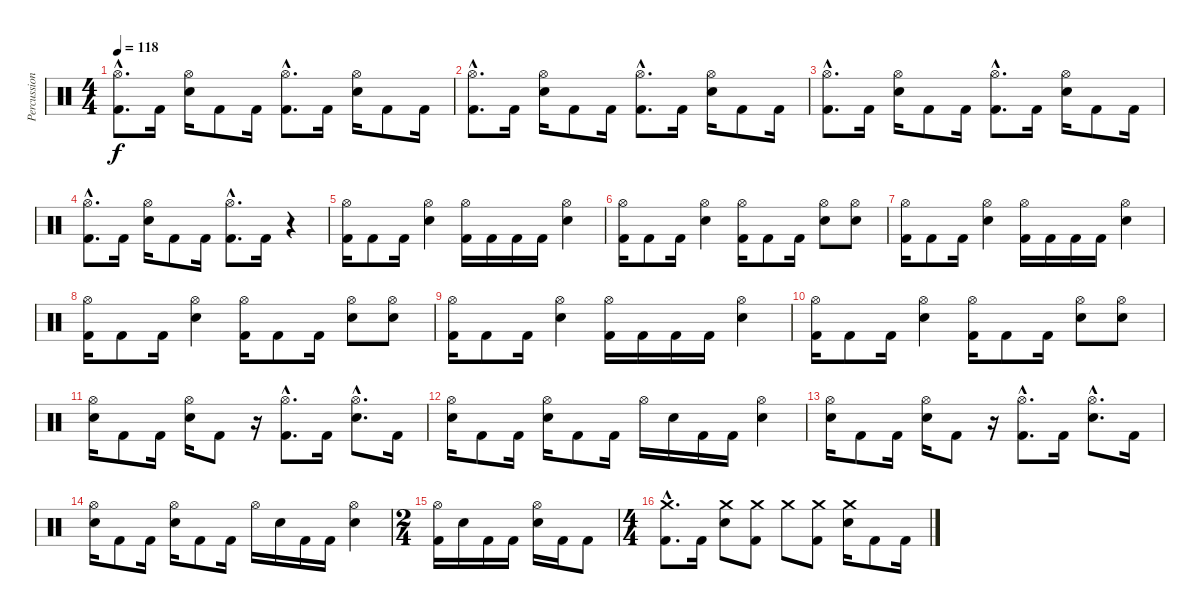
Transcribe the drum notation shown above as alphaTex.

\track ("Percussions" "Percussion") {instrument percussion}
\staff {score}
\articulation defaults
\ts (4 4)
\tempo 118
\clef neutral
\ks c
("Hi-Hat (open)"{hac} "Kick (hit) 2"{hac}).8{d dy f} "Kick (hit) 2".16 ("Hi-Hat (open)" "Electric Snare (hit)").16 "Kick (hit) 2".8 "Kick (hit) 2".16 ("Hi-Hat (open)"{hac} "Kick (hit) 2"{hac}).8{d} "Kick (hit) 2".16 ("Hi-Hat (open)" "Electric Snare (hit)").16 "Kick (hit) 2".8 "Kick (hit) 2".16 |
("Hi-Hat (open)"{hac} "Kick (hit) 2"{hac}).8{d} "Kick (hit) 2".16 ("Hi-Hat (open)" "Electric Snare (hit)").16 "Kick (hit) 2".8 "Kick (hit) 2".16 ("Hi-Hat (open)"{hac} "Kick (hit) 2"{hac}).8{d} "Kick (hit) 2".16 ("Hi-Hat (open)" "Electric Snare (hit)").16 "Kick (hit) 2".8 "Kick (hit) 2".16 |
("Hi-Hat (open)"{hac} "Kick (hit) 2"{hac}).8{d} "Kick (hit) 2".16 ("Hi-Hat (open)" "Electric Snare (hit)").16 "Kick (hit) 2".8 "Kick (hit) 2".16 ("Hi-Hat (open)"{hac} "Kick (hit) 2"{hac}).8{d} "Kick (hit) 2".16 ("Hi-Hat (open)" "Electric Snare (hit)").16 "Kick (hit) 2".8 "Kick (hit) 2".16 |
("Hi-Hat (open)"{hac} "Kick (hit) 2"{hac}).8{d} "Kick (hit) 2".16 ("Hi-Hat (open)" "Electric Snare (hit)").16 "Kick (hit) 2".8 "Kick (hit) 2".16 ("Hi-Hat (open)"{hac} "Kick (hit) 2"{hac}).8{d} "Kick (hit) 2".16 r.4 |
("Hi-Hat (open)" "Kick (hit) 2").16 "Kick (hit) 2".8 "Kick (hit) 2".16 ("Hi-Hat (open)" "Electric Snare (hit)").4 ("Hi-Hat (open)" "Kick (hit) 2").16 "Kick (hit) 2".16 "Kick (hit) 2".16 "Kick (hit) 2".16 ("Hi-Hat (open)" "Electric Snare (hit)").4 |
("Hi-Hat (open)" "Kick (hit) 2").16 "Kick (hit) 2".8 "Kick (hit) 2".16 ("Hi-Hat (open)" "Electric Snare (hit)").4 ("Hi-Hat (open)" "Kick (hit) 2").16 "Kick (hit) 2".8 "Kick (hit) 2".16 ("Hi-Hat (open)" "Electric Snare (hit)").8 ("Hi-Hat (open)" "Electric Snare (hit)").8 |
("Hi-Hat (open)" "Kick (hit) 2").16 "Kick (hit) 2".8 "Kick (hit) 2".16 ("Hi-Hat (open)" "Electric Snare (hit)").4 ("Hi-Hat (open)" "Kick (hit) 2").16 "Kick (hit) 2".16 "Kick (hit) 2".16 "Kick (hit) 2".16 ("Hi-Hat (open)" "Electric Snare (hit)").4 |
("Hi-Hat (open)" "Kick (hit) 2").16 "Kick (hit) 2".8 "Kick (hit) 2".16 ("Hi-Hat (open)" "Electric Snare (hit)").4 ("Hi-Hat (open)" "Kick (hit) 2").16 "Kick (hit) 2".8 "Kick (hit) 2".16 ("Hi-Hat (open)" "Electric Snare (hit)").8 ("Hi-Hat (open)" "Electric Snare (hit)").8 |
("Hi-Hat (open)" "Kick (hit) 2").16 "Kick (hit) 2".8 "Kick (hit) 2".16 ("Hi-Hat (open)" "Electric Snare (hit)").4 ("Hi-Hat (open)" "Kick (hit) 2").16 "Kick (hit) 2".16 "Kick (hit) 2".16 "Kick (hit) 2".16 ("Hi-Hat (open)" "Electric Snare (hit)").4 |
("Hi-Hat (open)" "Kick (hit) 2").16 "Kick (hit) 2".8 "Kick (hit) 2".16 ("Hi-Hat (open)" "Electric Snare (hit)").4 ("Hi-Hat (open)" "Kick (hit) 2").16 "Kick (hit) 2".8 "Kick (hit) 2".16 ("Hi-Hat (open)" "Electric Snare (hit)").8 ("Hi-Hat (open)" "Electric Snare (hit)").8 |
("Hi-Hat (open)" "Electric Snare (hit)").16 "Kick (hit) 2".8 "Kick (hit) 2".16 ("Hi-Hat (open)" "Electric Snare (hit)").16 "Kick (hit) 2".8 r.16 ("Hi-Hat (open)"{hac} "Kick (hit) 2"{hac}).8{d} "Kick (hit) 2".16 ("Hi-Hat (open)"{hac} "Electric Snare (hit)"{hac}).8{d} "Kick (hit) 2".16 |
("Hi-Hat (open)" "Electric Snare (hit)").16 "Kick (hit) 2".8 "Kick (hit) 2".16 ("Hi-Hat (open)" "Electric Snare (hit)").16 "Kick (hit) 2".8 "Kick (hit) 2".16 "Hi-Hat (open)".16 "Electric Snare (hit)".16 "Kick (hit) 2".16 "Kick (hit) 2".16 ("Hi-Hat (open)" "Electric Snare (hit)").4 |
("Hi-Hat (open)" "Electric Snare (hit)").16 "Kick (hit) 2".8 "Kick (hit) 2".16 ("Hi-Hat (open)" "Electric Snare (hit)").16 "Kick (hit) 2".8 r.16 ("Hi-Hat (open)"{hac} "Kick (hit) 2"{hac}).8{d} "Kick (hit) 2".16 ("Hi-Hat (open)"{hac} "Electric Snare (hit)"{hac}).8{d} "Kick (hit) 2".16 |
("Hi-Hat (open)" "Electric Snare (hit)").16 "Kick (hit) 2".8 "Kick (hit) 2".16 ("Hi-Hat (open)" "Electric Snare (hit)").16 "Kick (hit) 2".8 "Kick (hit) 2".16 "Hi-Hat (open)".16 "Electric Snare (hit)".16 "Kick (hit) 2".16 "Kick (hit) 2".16 ("Hi-Hat (open)" "Electric Snare (hit)").4 |
\ts (2 4)
("Hi-Hat (open)" "Kick (hit) 2").16 "Electric Snare (hit)".16 "Kick (hit) 2".16 "Kick (hit) 2".16 ("Hi-Hat (open)" "Electric Snare (hit)").16 "Kick (hit) 2".16 "Kick (hit) 2".8 |
\ts (4 4)
("Crash medium (hit)"{hac} "Kick (hit) 2"{hac}).8{d} "Kick (hit) 2".16 ("Crash medium (hit)" "Electric Snare (hit)").8 ("Crash medium (hit)" "Kick (hit) 2").8 "Crash medium (hit)".8 ("Crash medium (hit)" "Kick (hit) 2").8 ("Crash medium (hit)" "Electric Snare (hit)").16 "Kick (hit) 2".8 "Kick (hit) 2".16
